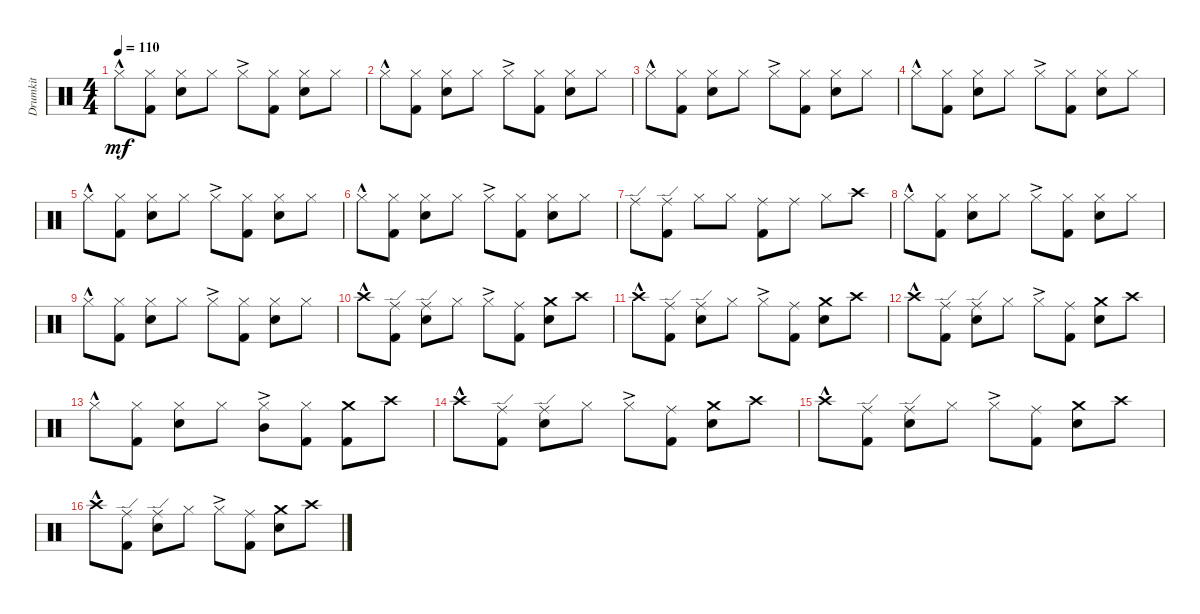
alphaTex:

\track ("Drumkit" "Drumkit") {instrument percussion}
\staff {score}
\articulation defaults
\ts (4 4)
\tempo 110
\clef neutral
\ks c "Hi-Hat (closed)"{hac}.8{dy mf}
("Hi-Hat (closed)" "Kick (hit) 2").8 ("Hi-Hat (closed)" "Snare (hit) 2").8 "Hi-Hat (closed)".8 "Hi-Hat (closed)"{ac}.8 ("Hi-Hat (closed)" "Kick (hit) 2").8 ("Hi-Hat (closed)" "Snare (hit) 2").8 "Hi-Hat (closed)".8 |
"Hi-Hat (closed)"{hac}.8 ("Hi-Hat (closed)" "Kick (hit) 2").8 ("Hi-Hat (closed)" "Snare (hit) 2").8 "Hi-Hat (closed)".8 "Hi-Hat (closed)"{ac}.8 ("Hi-Hat (closed)" "Kick (hit) 2").8 ("Hi-Hat (closed)" "Snare (hit) 2").8 "Hi-Hat (closed)".8 |
"Hi-Hat (closed)"{hac}.8 ("Hi-Hat (closed)" "Kick (hit) 2").8 ("Hi-Hat (closed)" "Snare (hit) 2").8 "Hi-Hat (closed)".8 "Hi-Hat (closed)"{ac}.8 ("Hi-Hat (closed)" "Kick (hit) 2").8 ("Hi-Hat (closed)" "Snare (hit) 2").8 "Hi-Hat (closed)".8 |
"Hi-Hat (closed)"{hac}.8 ("Hi-Hat (closed)" "Kick (hit) 2").8 ("Hi-Hat (closed)" "Snare (hit) 2").8 "Hi-Hat (closed)".8 "Hi-Hat (closed)"{ac}.8 ("Hi-Hat (closed)" "Kick (hit) 2").8 ("Hi-Hat (closed)" "Snare (hit) 2").8 "Hi-Hat (closed)".8 |
"Hi-Hat (closed)"{hac}.8 ("Hi-Hat (closed)" "Kick (hit) 2").8 ("Hi-Hat (closed)" "Snare (hit) 2").8 "Hi-Hat (closed)".8 "Hi-Hat (closed)"{ac}.8 ("Hi-Hat (closed)" "Kick (hit) 2").8 ("Hi-Hat (closed)" "Snare (hit) 2").8 "Hi-Hat (closed)".8 |
"Hi-Hat (closed)"{hac}.8 ("Hi-Hat (closed)" "Kick (hit) 2").8 ("Hi-Hat (closed)" "Snare (hit) 2").8 "Hi-Hat (closed)".8 "Hi-Hat (closed)"{ac}.8 ("Hi-Hat (closed)" "Kick (hit) 2").8 ("Hi-Hat (closed)" "Snare (hit) 2").8 "Hi-Hat (closed)".8 |
"Ride (edge)".8 ("Ride (edge)" "Kick (hit) 2").8 "Hi-Hat (closed)".8 "Hi-Hat (closed)".8 ("Ride (middle)" "Kick (hit) 2").8 "Ride (middle)".8 "Hi-Hat (closed)".8 "Crash high (hit)".8 |
"Hi-Hat (closed)"{hac}.8 ("Hi-Hat (closed)" "Kick (hit) 2").8 ("Hi-Hat (closed)" "Snare (hit) 2").8 "Hi-Hat (closed)".8 "Hi-Hat (closed)"{ac}.8 ("Hi-Hat (closed)" "Kick (hit) 2").8 ("Hi-Hat (closed)" "Snare (hit) 2").8 "Hi-Hat (closed)".8 |
"Hi-Hat (closed)"{hac}.8 ("Hi-Hat (closed)" "Kick (hit) 2").8 ("Hi-Hat (closed)" "Snare (hit) 2").8 "Hi-Hat (closed)".8 "Hi-Hat (closed)"{ac}.8 ("Hi-Hat (closed)" "Kick (hit) 2").8 ("Hi-Hat (closed)" "Snare (hit) 2").8 "Hi-Hat (closed)".8 |
"Crash high (hit)"{hac}.8 ("Kick (hit) 2" "Ride (edge)").8 ("Snare (hit) 2" "Ride (edge)").8 "Hi-Hat (closed)".8 "Hi-Hat (closed)"{ac}.8 ("Kick (hit) 2" "Ride (middle)").8 ("Snare (hit) 2" "Crash medium (hit)").8 "Crash high (hit)".8 |
"Crash high (hit)"{hac}.8 ("Kick (hit) 2" "Ride (edge)").8 ("Snare (hit) 2" "Ride (edge)").8 "Hi-Hat (closed)".8 "Hi-Hat (closed)"{ac}.8 ("Kick (hit) 2" "Ride (middle)").8 ("Snare (hit) 2" "Crash medium (hit)").8 "Crash high (hit)".8 |
"Crash high (hit)"{hac}.8 ("Kick (hit) 2" "Ride (edge)").8 ("Snare (hit) 2" "Ride (edge)").8 "Hi-Hat (closed)".8 "Hi-Hat (closed)"{ac}.8 ("Kick (hit) 2" "Ride (middle)").8 ("Snare (hit) 2" "Crash medium (hit)").8 "Crash high (hit)".8 |
"Hi-Hat (closed)"{hac}.8 ("Hi-Hat (closed)" "Kick (hit) 2").8 ("Hi-Hat (closed)" "Snare (hit) 2").8 "Hi-Hat (closed)".8 ("Hi-Hat (closed)"{ac} "Mid Tom (hit)").8 ("Hi-Hat (closed)" "Kick (hit) 2").8 ("Crash medium (hit)" "Kick (hit) 2").8 "Crash high (hit)".8 |
"Crash high (hit)"{hac}.8 ("Kick (hit) 2" "Ride (edge)").8 ("Snare (hit) 2" "Ride (edge)").8 "Hi-Hat (closed)".8 "Hi-Hat (closed)"{ac}.8 ("Kick (hit) 2" "Ride (middle)").8 ("Snare (hit) 2" "Crash medium (hit)").8 "Crash high (hit)".8 |
"Crash high (hit)"{hac}.8 ("Kick (hit) 2" "Ride (edge)").8 ("Snare (hit) 2" "Ride (edge)").8 "Hi-Hat (closed)".8 "Hi-Hat (closed)"{ac}.8 ("Kick (hit) 2" "Ride (middle)").8 ("Snare (hit) 2" "Crash medium (hit)").8 "Crash high (hit)".8 |
"Crash high (hit)"{hac}.8 ("Kick (hit) 2" "Ride (edge)").8 ("Snare (hit) 2" "Ride (edge)").8 "Hi-Hat (closed)".8 "Hi-Hat (closed)"{ac}.8 ("Kick (hit) 2" "Ride (middle)").8 ("Snare (hit) 2" "Crash medium (hit)").8 "Crash high (hit)".8
